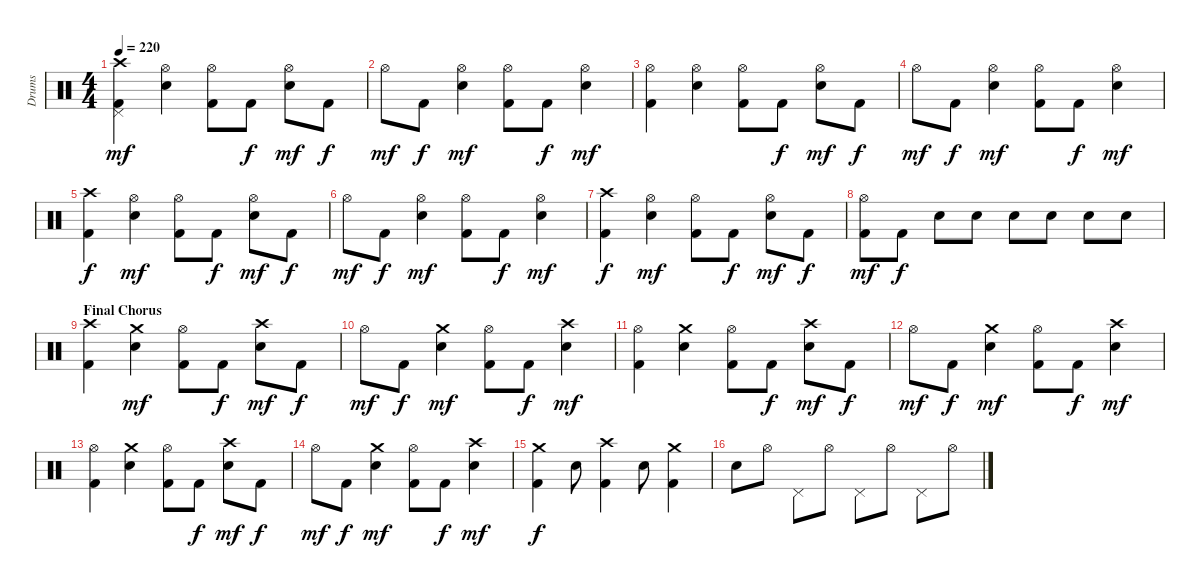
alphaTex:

\track ("Drums" "Drums") {instrument percussion}
\staff {score}
\articulation defaults
\ts (4 4)
\tempo 220
\clef neutral
\ks c
("Crash high (hit)" "Pedal Hi-Hat (hit)" "Kick (hit) 2").4{dy mf} ("Hi-Hat (open)" "Snare (hit) 2").4 ("Hi-Hat (open)" "Kick (hit) 2").8 "Kick (hit) 2".8{dy f} ("Hi-Hat (open)" "Snare (hit) 2").8{dy mf} "Kick (hit) 2".8{dy f} |
"Hi-Hat (open)".8{dy mf} "Kick (hit) 2".8{dy f} ("Hi-Hat (open)" "Snare (hit) 2").4{dy mf} ("Hi-Hat (open)" "Kick (hit) 2").8 "Kick (hit) 2".8{dy f} ("Hi-Hat (open)" "Snare (hit) 2").4{dy mf} |
("Hi-Hat (open)" "Kick (hit) 2").4 ("Hi-Hat (open)" "Snare (hit) 2").4 ("Hi-Hat (open)" "Kick (hit) 2").8 "Kick (hit) 2".8{dy f} ("Hi-Hat (open)" "Snare (hit) 2").8{dy mf} "Kick (hit) 2".8{dy f} |
"Hi-Hat (open)".8{dy mf} "Kick (hit) 2".8{dy f} ("Hi-Hat (open)" "Snare (hit) 2").4{dy mf} ("Hi-Hat (open)" "Kick (hit) 2").8 "Kick (hit) 2".8{dy f} ("Hi-Hat (open)" "Snare (hit) 2").4{dy mf} |
("Crash high (hit)" "Kick (hit) 2").4{dy f} ("Hi-Hat (open)" "Snare (hit) 2").4{dy mf} ("Hi-Hat (open)" "Kick (hit) 2").8 "Kick (hit) 2".8{dy f} ("Hi-Hat (open)" "Snare (hit) 2").8{dy mf} "Kick (hit) 2".8{dy f} |
"Hi-Hat (open)".8{dy mf} "Kick (hit) 2".8{dy f} ("Hi-Hat (open)" "Snare (hit) 2").4{dy mf} ("Hi-Hat (open)" "Kick (hit) 2").8 "Kick (hit) 2".8{dy f} ("Hi-Hat (open)" "Snare (hit) 2").4{dy mf} |
("Crash high (hit)" "Kick (hit) 2").4{dy f} ("Hi-Hat (open)" "Snare (hit) 2").4{dy mf} ("Hi-Hat (open)" "Kick (hit) 2").8 "Kick (hit) 2".8{dy f} ("Hi-Hat (open)" "Snare (hit) 2").8{dy mf} "Kick (hit) 2".8{dy f} |
("Hi-Hat (open)" "Kick (hit) 2").8{dy mf} "Kick (hit) 2".8{dy f} "Snare (hit) 2".8 "Snare (hit) 2".8 "Snare (hit) 2".8 "Snare (hit) 2".8 "Snare (hit) 2".8 "Snare (hit) 2".8 |
\section ("" "Final Chorus")
("Crash high (hit)" "Kick (hit) 2").4 ("Crash medium (hit)" "Snare (hit) 2").4{dy mf} ("Hi-Hat (open)" "Kick (hit) 2").8 "Kick (hit) 2".8{dy f} ("Crash high (hit)" "Snare (hit) 2").8{dy mf} "Kick (hit) 2".8{dy f} |
"Hi-Hat (open)".8{dy mf} "Kick (hit) 2".8{dy f} ("Crash medium (hit)" "Snare (hit) 2").4{dy mf} ("Hi-Hat (open)" "Kick (hit) 2").8 "Kick (hit) 2".8{dy f} ("Crash high (hit)" "Snare (hit) 2").4{dy mf} |
("Hi-Hat (open)" "Kick (hit) 2").4 ("Crash medium (hit)" "Snare (hit) 2").4 ("Hi-Hat (open)" "Kick (hit) 2").8 "Kick (hit) 2".8{dy f} ("Crash high (hit)" "Snare (hit) 2").8{dy mf} "Kick (hit) 2".8{dy f} |
"Hi-Hat (open)".8{dy mf} "Kick (hit) 2".8{dy f} ("Crash medium (hit)" "Snare (hit) 2").4{dy mf} ("Hi-Hat (open)" "Kick (hit) 2").8 "Kick (hit) 2".8{dy f} ("Crash high (hit)" "Snare (hit) 2").4{dy mf} |
("Hi-Hat (open)" "Kick (hit) 2").4 ("Crash medium (hit)" "Snare (hit) 2").4 ("Hi-Hat (open)" "Kick (hit) 2").8 "Kick (hit) 2".8{dy f} ("Crash high (hit)" "Snare (hit) 2").8{dy mf} "Kick (hit) 2".8{dy f} |
"Hi-Hat (open)".8{dy mf} "Kick (hit) 2".8{dy f} ("Crash medium (hit)" "Snare (hit) 2").4{dy mf} ("Hi-Hat (open)" "Kick (hit) 2").8 "Kick (hit) 2".8{dy f} ("Crash high (hit)" "Snare (hit) 2").4{dy mf} |
("Crash medium (hit)" "Kick (hit) 2").4{dy f} "Snare (hit) 2".8 ("Crash high (hit)" "Kick (hit) 2").4 "Snare (hit) 2".8 ("Crash medium (hit)" "Kick (hit) 2").4 |
"Snare (hit) 2".8 "Hi-Hat (open)".8 "Pedal Hi-Hat (hit)".8 "Hi-Hat (open)".8 "Pedal Hi-Hat (hit)".8 "Hi-Hat (open)".8 "Pedal Hi-Hat (hit)".8 "Hi-Hat (open)".8
